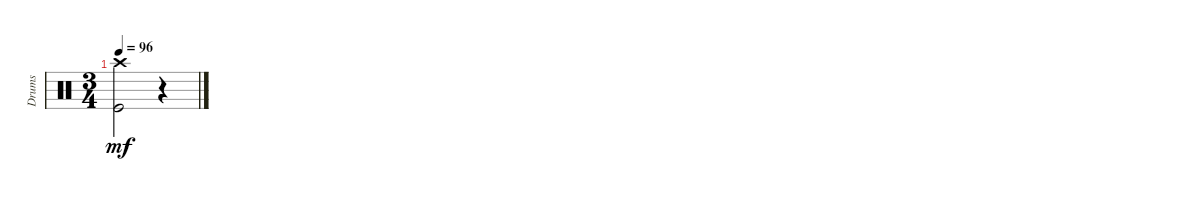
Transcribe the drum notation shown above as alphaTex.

\track ("Drums" "Drums") {instrument percussion}
\staff {score}
\articulation defaults
\ts (3 4)
\tempo 96
\clef neutral
\ks c
("Crash high (hit)" "Kick (hit)").2{dy mf} r.4
